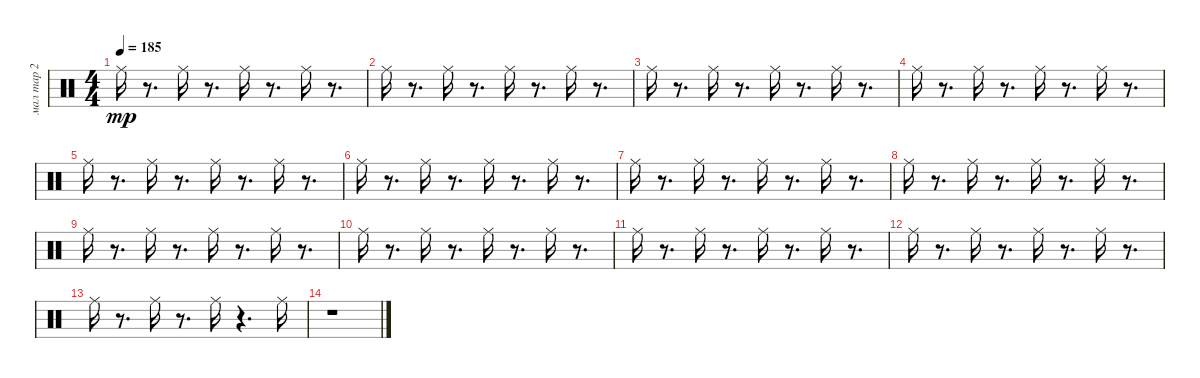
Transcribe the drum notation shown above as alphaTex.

\track ("мал тар 2" "мал тар 2") {instrument percussion}
\staff {score}
\articulation defaults
\ts (4 4)
\tempo 185
\clef neutral
\ks c "Ride (middle)".16{dy mp}
r.8{d} "Ride (middle)".16 r.8{d} "Ride (middle)".16 r.8{d} "Ride (middle)".16 r.8{d} |
"Ride (middle)".16 r.8{d} "Ride (middle)".16 r.8{d} "Ride (middle)".16 r.8{d} "Ride (middle)".16 r.8{d} |
"Ride (middle)".16 r.8{d} "Ride (middle)".16 r.8{d} "Ride (middle)".16 r.8{d} "Ride (middle)".16 r.8{d} |
"Ride (middle)".16 r.8{d} "Ride (middle)".16 r.8{d} "Ride (middle)".16 r.8{d} "Ride (middle)".16 r.8{d} |
"Ride (middle)".16 r.8{d} "Ride (middle)".16 r.8{d} "Ride (middle)".16 r.8{d} "Ride (middle)".16 r.8{d} |
"Ride (middle)".16 r.8{d} "Ride (middle)".16 r.8{d} "Ride (middle)".16 r.8{d} "Ride (middle)".16 r.8{d} |
"Ride (middle)".16 r.8{d} "Ride (middle)".16 r.8{d} "Ride (middle)".16 r.8{d} "Ride (middle)".16 r.8{d} |
"Ride (middle)".16 r.8{d} "Ride (middle)".16 r.8{d} "Ride (middle)".16 r.8{d} "Ride (middle)".16 r.8{d} |
"Ride (middle)".16 r.8{d} "Ride (middle)".16 r.8{d} "Ride (middle)".16 r.8{d} "Ride (middle)".16 r.8{d} |
"Ride (middle)".16 r.8{d} "Ride (middle)".16 r.8{d} "Ride (middle)".16 r.8{d} "Ride (middle)".16 r.8{d} |
"Ride (middle)".16 r.8{d} "Ride (middle)".16 r.8{d} "Ride (middle)".16 r.8{d} "Ride (middle)".16 r.8{d} |
"Ride (middle)".16 r.8{d} "Ride (middle)".16 r.8{d} "Ride (middle)".16 r.8{d} "Ride (middle)".16 r.8{d} |
"Ride (middle)".16 r.8{d} "Ride (middle)".16 r.8{d} "Ride (middle)".16 r.4{d} "Ride (middle)".16 |
r.1
